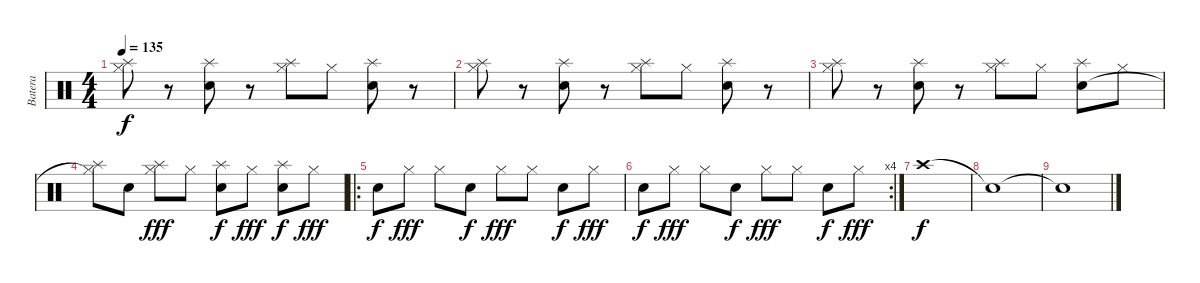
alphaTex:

\track ("Batera" "Batera") {instrument percussion}
\staff {score}
\articulation defaults
\ts (4 4)
\tempo 135
\clef neutral
\ks c
("Splash (hit)" "Hi-Hat (closed)").8{dy f} r.8 ("Splash (hit)" "Electric Snare (hit)").8 r.8 ("Splash (hit)" "Hi-Hat (closed)").8 "Hi-Hat (closed)".8 ("Splash (hit)" "Electric Snare (hit)").8 r.8 |
("Splash (hit)" "Hi-Hat (closed)").8 r.8 ("Splash (hit)" "Electric Snare (hit)").8 r.8 ("Splash (hit)" "Hi-Hat (closed)").8 "Hi-Hat (closed)".8 ("Splash (hit)" "Electric Snare (hit)").8 r.8 |
("Splash (hit)" "Hi-Hat (closed)").8 r.8 ("Splash (hit)" "Electric Snare (hit)").8 r.8 ("Splash (hit)" "Hi-Hat (closed)").8 "Hi-Hat (closed)".8 ("Splash (hit)" "Electric Snare (hit)").8 "Hi-Hat (closed)".8 |
("Splash (hit)" "Hi-Hat (closed)"{t}).8 "Electric Snare (hit)".8 ("Splash (hit)" "Hi-Hat (closed)").8{dy fff} "Hi-Hat (closed)".8 ("Splash (hit)" "Electric Snare (hit)").8{dy f} "Hi-Hat (closed)".8{dy fff} ("Splash (hit)" "Electric Snare (hit)").8{dy f} "Hi-Hat (closed)".8{dy fff} |
\ro "Electric Snare (hit)".8{dy f} "Hi-Hat (closed)".8{dy fff} "Hi-Hat (closed)".8 "Electric Snare (hit)".8{dy f} "Hi-Hat (closed)".8{dy fff} "Hi-Hat (closed)".8 "Electric Snare (hit)".8{dy f} "Hi-Hat (closed)".8{dy fff}
|
\rc 4 "Electric Snare (hit)".8{dy f} "Hi-Hat (closed)".8{dy fff} "Hi-Hat (closed)".8 "Electric Snare (hit)".8{dy f} "Hi-Hat (closed)".8{dy fff} "Hi-Hat (closed)".8 "Electric Snare (hit)".8{dy f} "Hi-Hat (closed)".8{dy fff}
|
"Crash high (hit)".1{dy f} |
"Snare (hit)"{t}.1 |
"Snare (hit)"{t}.1
